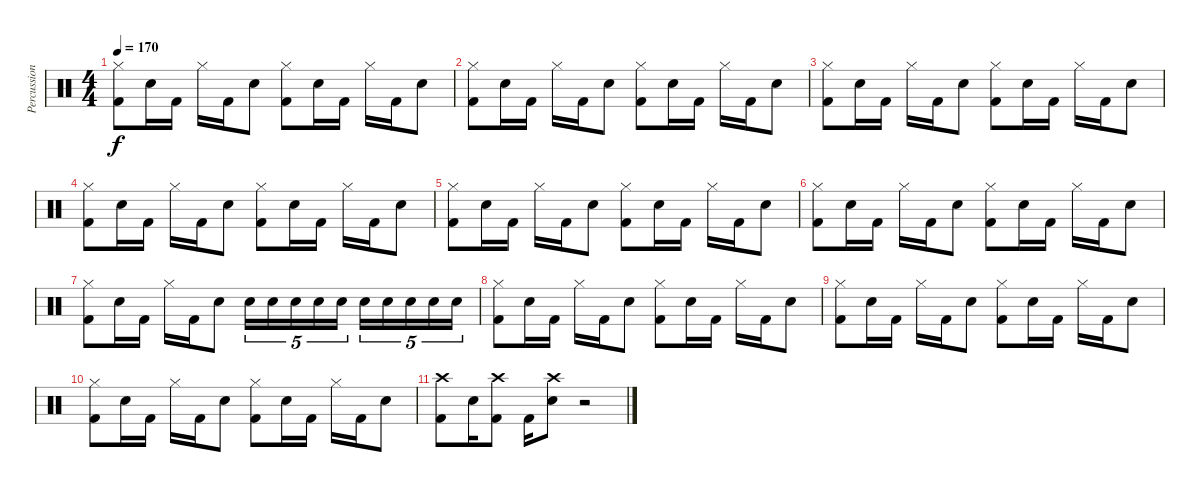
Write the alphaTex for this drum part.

\track ("Percussions" "Percussion") {instrument percussion}
\staff {score}
\articulation defaults
\ts (4 4)
\tempo 170
\clef neutral
\ks c
("Hi-Hat (closed)" "Kick (hit) 2").8{dy f} "Snare (hit) 2".16 "Kick (hit) 2".16 "Hi-Hat (closed)".16 "Kick (hit) 2".16 "Snare (hit) 2".8 ("Hi-Hat (closed)" "Kick (hit) 2").8 "Snare (hit) 2".16 "Kick (hit) 2".16 "Hi-Hat (closed)".16 "Kick (hit) 2".16 "Snare (hit) 2".8 |
("Hi-Hat (closed)" "Kick (hit) 2").8 "Snare (hit) 2".16 "Kick (hit) 2".16 "Hi-Hat (closed)".16 "Kick (hit) 2".16 "Snare (hit) 2".8 ("Hi-Hat (closed)" "Kick (hit) 2").8 "Snare (hit) 2".16 "Kick (hit) 2".16 "Hi-Hat (closed)".16 "Kick (hit) 2".16 "Snare (hit) 2".8 |
("Hi-Hat (closed)" "Kick (hit) 2").8 "Snare (hit) 2".16 "Kick (hit) 2".16 "Hi-Hat (closed)".16 "Kick (hit) 2".16 "Snare (hit) 2".8 ("Hi-Hat (closed)" "Kick (hit) 2").8 "Snare (hit) 2".16 "Kick (hit) 2".16 "Hi-Hat (closed)".16 "Kick (hit) 2".16 "Snare (hit) 2".8 |
("Hi-Hat (closed)" "Kick (hit) 2").8 "Snare (hit) 2".16 "Kick (hit) 2".16 "Hi-Hat (closed)".16 "Kick (hit) 2".16 "Snare (hit) 2".8 ("Hi-Hat (closed)" "Kick (hit) 2").8 "Snare (hit) 2".16 "Kick (hit) 2".16 "Hi-Hat (closed)".16 "Kick (hit) 2".16 "Snare (hit) 2".8 |
("Hi-Hat (closed)" "Kick (hit) 2").8 "Snare (hit) 2".16 "Kick (hit) 2".16 "Hi-Hat (closed)".16 "Kick (hit) 2".16 "Snare (hit) 2".8 ("Hi-Hat (closed)" "Kick (hit) 2").8 "Snare (hit) 2".16 "Kick (hit) 2".16 "Hi-Hat (closed)".16 "Kick (hit) 2".16 "Snare (hit) 2".8 |
("Hi-Hat (closed)" "Kick (hit) 2").8 "Snare (hit) 2".16 "Kick (hit) 2".16 "Hi-Hat (closed)".16 "Kick (hit) 2".16 "Snare (hit) 2".8 ("Hi-Hat (closed)" "Kick (hit) 2").8 "Snare (hit) 2".16 "Kick (hit) 2".16 "Hi-Hat (closed)".16 "Kick (hit) 2".16 "Snare (hit) 2".8 |
("Hi-Hat (closed)" "Kick (hit) 2").8 "Snare (hit) 2".16 "Kick (hit) 2".16 "Hi-Hat (closed)".16 "Kick (hit) 2".16 "Snare (hit) 2".8 "Snare (hit) 2".16{tu (5 4)} "Snare (hit) 2".16{tu (5 4)} "Snare (hit) 2".16{tu (5 4)} "Snare (hit) 2".16{tu (5 4)} "Snare (hit) 2".16{tu (5 4)} "Snare (hit) 2".16{tu (5 4)} "Snare (hit) 2".16{tu (5 4)} "Snare (hit) 2".16{tu (5 4)} "Snare (hit) 2".16{tu (5 4)} "Snare (hit) 2".16{tu (5 4)} |
("Hi-Hat (closed)" "Kick (hit) 2").8 "Snare (hit) 2".16 "Kick (hit) 2".16 "Hi-Hat (closed)".16 "Kick (hit) 2".16 "Snare (hit) 2".8 ("Hi-Hat (closed)" "Kick (hit) 2").8 "Snare (hit) 2".16 "Kick (hit) 2".16 "Hi-Hat (closed)".16 "Kick (hit) 2".16 "Snare (hit) 2".8 |
("Hi-Hat (closed)" "Kick (hit) 2").8 "Snare (hit) 2".16 "Kick (hit) 2".16 "Hi-Hat (closed)".16 "Kick (hit) 2".16 "Snare (hit) 2".8 ("Hi-Hat (closed)" "Kick (hit) 2").8 "Snare (hit) 2".16 "Kick (hit) 2".16 "Hi-Hat (closed)".16 "Kick (hit) 2".16 "Snare (hit) 2".8 |
("Hi-Hat (closed)" "Kick (hit) 2").8 "Snare (hit) 2".16 "Kick (hit) 2".16 "Hi-Hat (closed)".16 "Kick (hit) 2".16 "Snare (hit) 2".8 ("Hi-Hat (closed)" "Kick (hit) 2").8 "Snare (hit) 2".16 "Kick (hit) 2".16 "Hi-Hat (closed)".16 "Kick (hit) 2".16 "Snare (hit) 2".8 |
("Crash high (hit)" "Kick (hit) 2").8 "Snare (hit) 2".16 ("Crash high (hit)" "Kick (hit) 2").8 "Kick (hit) 2".16 ("Crash high (hit)" "Snare (hit) 2").8 r.2
